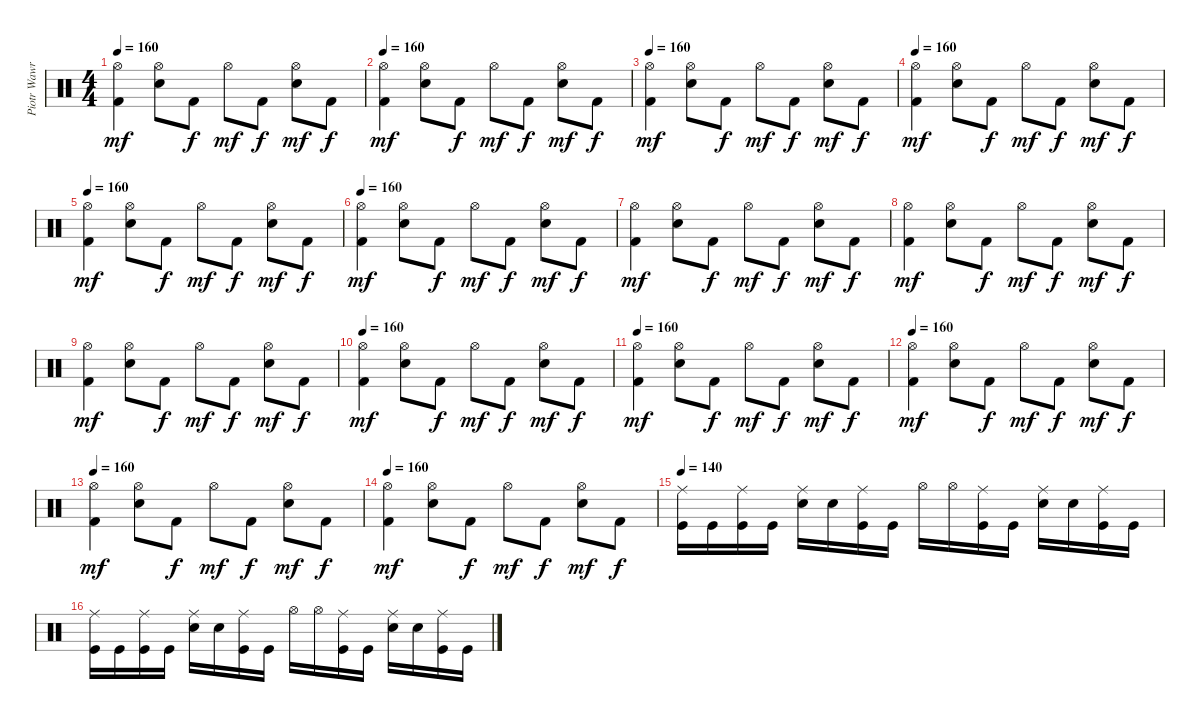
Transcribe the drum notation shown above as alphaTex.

\track ("Piotr Wawrzeniunk (drums)" "Piotr Wawr") {instrument percussion}
\staff {score}
\articulation defaults
\ts (4 4)
\tempo 160
\clef neutral
\ks c
("Kick (hit) 2" "Hi-Hat (open)").4{dy mf} ("Electric Snare (hit)" "Hi-Hat (open)").8 "Kick (hit) 2".8{dy f} "Hi-Hat (open)".8{dy mf} "Kick (hit) 2".8{dy f} ("Electric Snare (hit)" "Hi-Hat (open)").8{dy mf} "Kick (hit) 2".8{dy f} |
\tempo 160
("Kick (hit) 2" "Hi-Hat (open)").4{dy mf} ("Electric Snare (hit)" "Hi-Hat (open)").8 "Kick (hit) 2".8{dy f} "Hi-Hat (open)".8{dy mf} "Kick (hit) 2".8{dy f} ("Electric Snare (hit)" "Hi-Hat (open)").8{dy mf} "Kick (hit) 2".8{dy f} |
\tempo 160
("Kick (hit) 2" "Hi-Hat (open)").4{dy mf} ("Electric Snare (hit)" "Hi-Hat (open)").8 "Kick (hit) 2".8{dy f} "Hi-Hat (open)".8{dy mf} "Kick (hit) 2".8{dy f} ("Electric Snare (hit)" "Hi-Hat (open)").8{dy mf} "Kick (hit) 2".8{dy f} |
\tempo 160
("Kick (hit) 2" "Hi-Hat (open)").4{dy mf} ("Electric Snare (hit)" "Hi-Hat (open)").8 "Kick (hit) 2".8{dy f} "Hi-Hat (open)".8{dy mf} "Kick (hit) 2".8{dy f} ("Electric Snare (hit)" "Hi-Hat (open)").8{dy mf} "Kick (hit) 2".8{dy f} |
\tempo 160
("Kick (hit) 2" "Hi-Hat (open)").4{dy mf} ("Electric Snare (hit)" "Hi-Hat (open)").8 "Kick (hit) 2".8{dy f} "Hi-Hat (open)".8{dy mf} "Kick (hit) 2".8{dy f} ("Electric Snare (hit)" "Hi-Hat (open)").8{dy mf} "Kick (hit) 2".8{dy f} |
\tempo 160
("Kick (hit) 2" "Hi-Hat (open)").4{dy mf} ("Electric Snare (hit)" "Hi-Hat (open)").8 "Kick (hit) 2".8{dy f} "Hi-Hat (open)".8{dy mf} "Kick (hit) 2".8{dy f} ("Electric Snare (hit)" "Hi-Hat (open)").8{dy mf} "Kick (hit) 2".8{dy f} |
("Kick (hit) 2" "Hi-Hat (open)").4{dy mf} ("Electric Snare (hit)" "Hi-Hat (open)").8 "Kick (hit) 2".8{dy f} "Hi-Hat (open)".8{dy mf} "Kick (hit) 2".8{dy f} ("Electric Snare (hit)" "Hi-Hat (open)").8{dy mf} "Kick (hit) 2".8{dy f} |
("Kick (hit) 2" "Hi-Hat (open)").4{dy mf} ("Electric Snare (hit)" "Hi-Hat (open)").8 "Kick (hit) 2".8{dy f} "Hi-Hat (open)".8{dy mf} "Kick (hit) 2".8{dy f} ("Electric Snare (hit)" "Hi-Hat (open)").8{dy mf} "Kick (hit) 2".8{dy f} |
("Kick (hit) 2" "Hi-Hat (open)").4{dy mf} ("Electric Snare (hit)" "Hi-Hat (open)").8 "Kick (hit) 2".8{dy f} "Hi-Hat (open)".8{dy mf} "Kick (hit) 2".8{dy f} ("Electric Snare (hit)" "Hi-Hat (open)").8{dy mf} "Kick (hit) 2".8{dy f} |
\tempo 160
("Kick (hit) 2" "Hi-Hat (open)").4{dy mf} ("Electric Snare (hit)" "Hi-Hat (open)").8 "Kick (hit) 2".8{dy f} "Hi-Hat (open)".8{dy mf} "Kick (hit) 2".8{dy f} ("Electric Snare (hit)" "Hi-Hat (open)").8{dy mf} "Kick (hit) 2".8{dy f} |
\tempo 160
("Kick (hit) 2" "Hi-Hat (open)").4{dy mf} ("Electric Snare (hit)" "Hi-Hat (open)").8 "Kick (hit) 2".8{dy f} "Hi-Hat (open)".8{dy mf} "Kick (hit) 2".8{dy f} ("Electric Snare (hit)" "Hi-Hat (open)").8{dy mf} "Kick (hit) 2".8{dy f} |
\tempo 160
("Kick (hit) 2" "Hi-Hat (open)").4{dy mf} ("Electric Snare (hit)" "Hi-Hat (open)").8 "Kick (hit) 2".8{dy f} "Hi-Hat (open)".8{dy mf} "Kick (hit) 2".8{dy f} ("Electric Snare (hit)" "Hi-Hat (open)").8{dy mf} "Kick (hit) 2".8{dy f} |
\tempo 160
("Kick (hit) 2" "Hi-Hat (open)").4{dy mf} ("Electric Snare (hit)" "Hi-Hat (open)").8 "Kick (hit) 2".8{dy f} "Hi-Hat (open)".8{dy mf} "Kick (hit) 2".8{dy f} ("Electric Snare (hit)" "Hi-Hat (open)").8{dy mf} "Kick (hit) 2".8{dy f} |
\tempo 160
("Kick (hit) 2" "Hi-Hat (open)").4{dy mf} ("Electric Snare (hit)" "Hi-Hat (open)").8 "Kick (hit) 2".8{dy f} "Hi-Hat (open)".8{dy mf} "Kick (hit) 2".8{dy f} ("Electric Snare (hit)" "Hi-Hat (open)").8{dy mf} "Kick (hit) 2".8{dy f} |
\tempo 140
("Kick (hit)" "Ride (middle)").16 "Kick (hit)".16 ("Kick (hit)" "Ride (middle)").16 "Kick (hit)".16 ("Electric Snare (hit)" "Ride (middle)").16 "Electric Snare (hit)".16 ("Kick (hit)" "Ride (middle)").16 "Kick (hit)".16 "Hi-Hat (open)".16 "Hi-Hat (open)".16 ("Kick (hit)" "Ride (middle)").16 "Kick (hit)".16 ("Electric Snare (hit)" "Ride (middle)").16 "Electric Snare (hit)".16 ("Kick (hit)" "Ride (middle)").16 "Kick (hit)".16 |
("Kick (hit)" "Ride (middle)").16 "Kick (hit)".16 ("Kick (hit)" "Ride (middle)").16 "Kick (hit)".16 ("Electric Snare (hit)" "Ride (middle)").16 "Electric Snare (hit)".16 ("Kick (hit)" "Ride (middle)").16 "Kick (hit)".16 "Hi-Hat (open)".16 "Hi-Hat (open)".16 ("Kick (hit)" "Ride (middle)").16 "Kick (hit)".16 ("Electric Snare (hit)" "Ride (middle)").16 "Electric Snare (hit)".16 ("Kick (hit)" "Ride (middle)").16 "Kick (hit)".16
